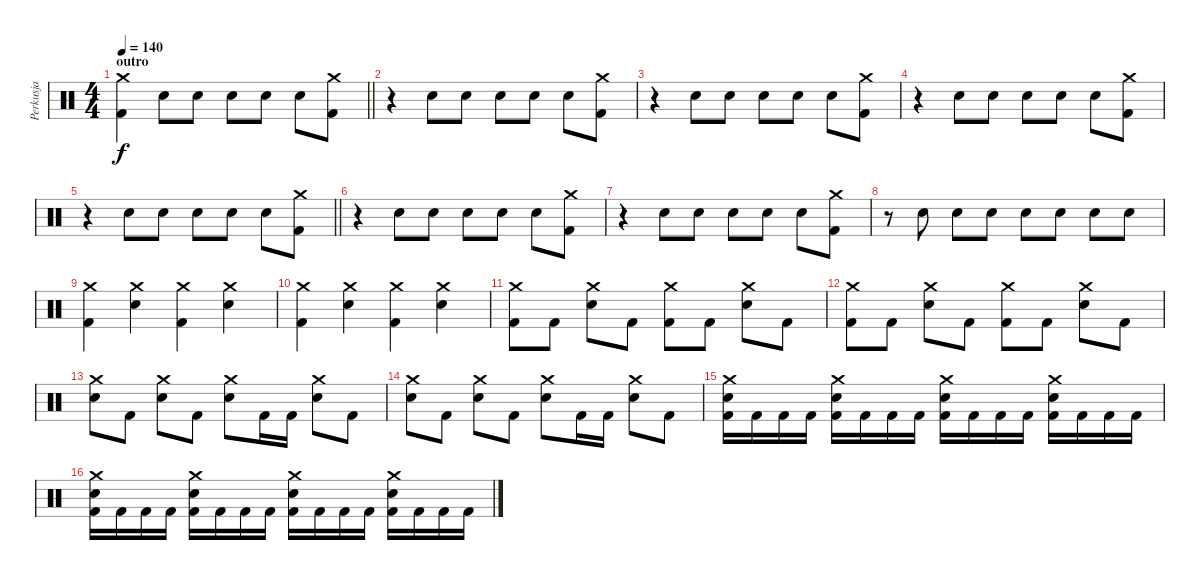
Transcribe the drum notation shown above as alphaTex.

\track ("Perkusja" "Perkusja") {instrument percussion}
\staff {score}
\articulation defaults
\ts (4 4)
\section ("" "outro")
\tempo 140
\clef neutral
\barLineRight lightlight
\ks c
("Crash medium (hit)" "Kick (hit) 2").4{dy f} "Snare (hit) 2".8 "Snare (hit) 2".8 "Snare (hit) 2".8 "Snare (hit) 2".8 "Snare (hit) 2".8 ("Crash medium (hit)" "Kick (hit) 2").8 |
r.4 "Snare (hit) 2".8 "Snare (hit) 2".8 "Snare (hit) 2".8 "Snare (hit) 2".8 "Snare (hit) 2".8 ("Crash medium (hit)" "Kick (hit) 2").8 |
r.4 "Snare (hit) 2".8 "Snare (hit) 2".8 "Snare (hit) 2".8 "Snare (hit) 2".8 "Snare (hit) 2".8 ("Crash medium (hit)" "Kick (hit) 2").8 |
r.4 "Snare (hit) 2".8 "Snare (hit) 2".8 "Snare (hit) 2".8 "Snare (hit) 2".8 "Snare (hit) 2".8 ("Crash medium (hit)" "Kick (hit) 2").8 |
\barLineRight lightlight
r.4 "Snare (hit) 2".8 "Snare (hit) 2".8 "Snare (hit) 2".8 "Snare (hit) 2".8 "Snare (hit) 2".8 ("Crash medium (hit)" "Kick (hit) 2").8 |
r.4 "Snare (hit) 2".8 "Snare (hit) 2".8 "Snare (hit) 2".8 "Snare (hit) 2".8 "Snare (hit) 2".8 ("Crash medium (hit)" "Kick (hit) 2").8 |
r.4 "Snare (hit) 2".8 "Snare (hit) 2".8 "Snare (hit) 2".8 "Snare (hit) 2".8 "Snare (hit) 2".8 ("Crash medium (hit)" "Kick (hit) 2").8 |
r.8 "Snare (hit) 2".8 "Snare (hit) 2".8 "Snare (hit) 2".8 "Snare (hit) 2".8 "Snare (hit) 2".8 "Snare (hit) 2".8 "Snare (hit) 2".8 |
("Crash medium (hit)" "Kick (hit) 2").4 ("Crash medium (hit)" "Snare (hit) 2").4 ("Crash medium (hit)" "Kick (hit) 2").4 ("Crash medium (hit)" "Snare (hit) 2").4 |
("Crash medium (hit)" "Kick (hit) 2").4 ("Crash medium (hit)" "Snare (hit) 2").4 ("Crash medium (hit)" "Kick (hit) 2").4 ("Crash medium (hit)" "Snare (hit) 2").4 |
("Kick (hit) 2" "Crash medium (hit)").8 "Kick (hit) 2".8 ("Crash medium (hit)" "Snare (hit) 2").8 "Kick (hit) 2".8 ("Kick (hit) 2" "Crash medium (hit)").8 "Kick (hit) 2".8 ("Crash medium (hit)" "Snare (hit) 2").8 "Kick (hit) 2".8 |
("Kick (hit) 2" "Crash medium (hit)").8 "Kick (hit) 2".8 ("Crash medium (hit)" "Snare (hit) 2").8 "Kick (hit) 2".8 ("Kick (hit) 2" "Crash medium (hit)").8 "Kick (hit) 2".8 ("Crash medium (hit)" "Snare (hit) 2").8 "Kick (hit) 2".8 |
("Snare (hit) 2" "Crash medium (hit)").8 "Kick (hit) 2".8 ("Snare (hit) 2" "Crash medium (hit)").8 "Kick (hit) 2".8 ("Snare (hit) 2" "Crash medium (hit)").8 "Kick (hit) 2".16 "Kick (hit) 2".16 ("Snare (hit) 2" "Crash medium (hit)").8 "Kick (hit) 2".8 |
("Snare (hit) 2" "Crash medium (hit)").8 "Kick (hit) 2".8 ("Snare (hit) 2" "Crash medium (hit)").8 "Kick (hit) 2".8 ("Snare (hit) 2" "Crash medium (hit)").8 "Kick (hit) 2".16 "Kick (hit) 2".16 ("Snare (hit) 2" "Crash medium (hit)").8 "Kick (hit) 2".8 |
("Kick (hit) 2" "Snare (hit) 2" "Crash medium (hit)").16 "Kick (hit) 2".16 "Kick (hit) 2".16 "Kick (hit) 2".16 ("Kick (hit) 2" "Snare (hit) 2" "Crash medium (hit)").16 "Kick (hit) 2".16 "Kick (hit) 2".16 "Kick (hit) 2".16 ("Kick (hit) 2" "Snare (hit) 2" "Crash medium (hit)").16 "Kick (hit) 2".16 "Kick (hit) 2".16 "Kick (hit) 2".16 ("Kick (hit) 2" "Snare (hit) 2" "Crash medium (hit)").16 "Kick (hit) 2".16 "Kick (hit) 2".16 "Kick (hit) 2".16 |
("Kick (hit) 2" "Snare (hit) 2" "Crash medium (hit)").16 "Kick (hit) 2".16 "Kick (hit) 2".16 "Kick (hit) 2".16 ("Kick (hit) 2" "Snare (hit) 2" "Crash medium (hit)").16 "Kick (hit) 2".16 "Kick (hit) 2".16 "Kick (hit) 2".16 ("Kick (hit) 2" "Snare (hit) 2" "Crash medium (hit)").16 "Kick (hit) 2".16 "Kick (hit) 2".16 "Kick (hit) 2".16 ("Kick (hit) 2" "Snare (hit) 2" "Crash medium (hit)").16 "Kick (hit) 2".16 "Kick (hit) 2".16 "Kick (hit) 2".16
